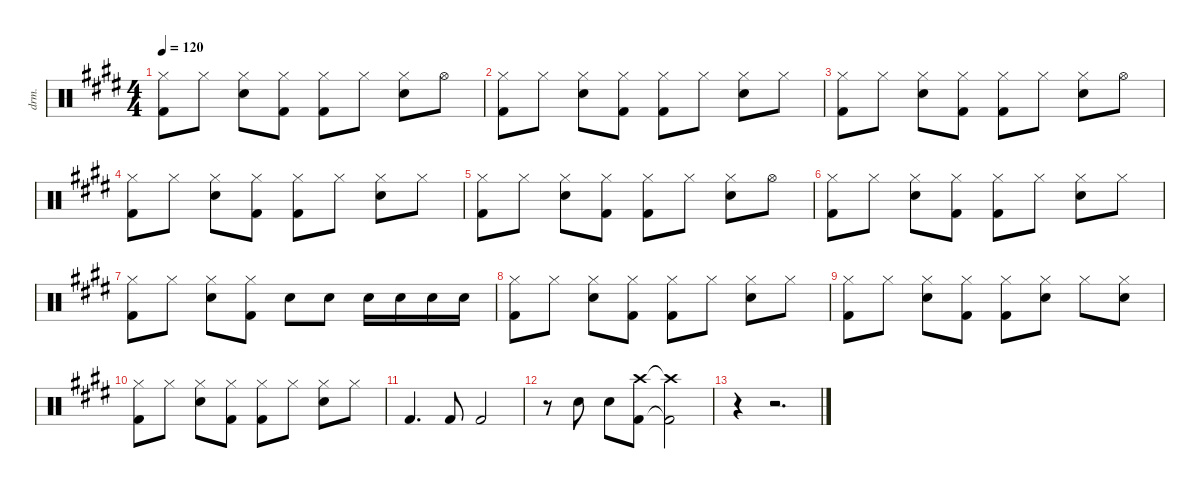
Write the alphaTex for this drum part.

\defaultSystemsLayout 4
\hideDynamics
\bracketExtendMode nobrackets
\track ("Drum" "drm.") {instrument percussion}
\staff {score}
\articulation defaults
\ts (4 4)
\tempo 120
\clef neutral
\ks e
("Hi-Hat (closed)"{acc forcenatural} "Kick (hit) 2"{acc forcenatural}).8{dy f beam Down} "Hi-Hat (closed)"{acc forcenatural}.8{beam Down} ("Hi-Hat (closed)"{acc forcenatural} "Snare (hit) 2"{acc forcenatural}).8{beam Down} ("Hi-Hat (closed)"{acc forcenatural} "Kick (hit) 2"{acc forcenatural}).8{beam Down} ("Hi-Hat (closed)"{acc forcenatural} "Kick (hit) 2"{acc forcenatural}).8{beam Down} "Hi-Hat (closed)"{acc forcenatural}.8{beam Down} ("Hi-Hat (closed)"{acc forcenatural} "Snare (hit) 2"{acc forcenatural}).8{beam Down} "Hi-Hat (open)"{acc forcenatural}.8{beam Down} |
("Hi-Hat (closed)"{acc forcenatural} "Kick (hit) 2"{acc forcenatural}).8{beam Down} "Hi-Hat (closed)"{acc forcenatural}.8{beam Down} ("Hi-Hat (closed)"{acc forcenatural} "Snare (hit) 2"{acc forcenatural}).8{beam Down} ("Hi-Hat (closed)"{acc forcenatural} "Kick (hit) 2"{acc forcenatural}).8{beam Down} ("Hi-Hat (closed)"{acc forcenatural} "Kick (hit) 2"{acc forcenatural}).8{beam Down} "Hi-Hat (closed)"{acc forcenatural}.8{beam Down} ("Hi-Hat (closed)"{acc forcenatural} "Snare (hit) 2"{acc forcenatural}).8{beam Down} "Hi-Hat (closed)"{acc forcenatural}.8{beam Down} |
("Hi-Hat (closed)"{acc forcenatural} "Kick (hit) 2"{acc forcenatural}).8{beam Down} "Hi-Hat (closed)"{acc forcenatural}.8{beam Down} ("Hi-Hat (closed)"{acc forcenatural} "Snare (hit) 2"{acc forcenatural}).8{beam Down} ("Hi-Hat (closed)"{acc forcenatural} "Kick (hit) 2"{acc forcenatural}).8{beam Down} ("Hi-Hat (closed)"{acc forcenatural} "Kick (hit) 2"{acc forcenatural}).8{beam Down} "Hi-Hat (closed)"{acc forcenatural}.8{beam Down} ("Hi-Hat (closed)"{acc forcenatural} "Snare (hit) 2"{acc forcenatural}).8{beam Down} "Hi-Hat (open)"{acc forcenatural}.8{beam Down} |
("Hi-Hat (closed)"{acc forcenatural} "Kick (hit) 2"{acc forcenatural}).8{beam Down} "Hi-Hat (closed)"{acc forcenatural}.8{beam Down} ("Hi-Hat (closed)"{acc forcenatural} "Snare (hit) 2"{acc forcenatural}).8{beam Down} ("Hi-Hat (closed)"{acc forcenatural} "Kick (hit) 2"{acc forcenatural}).8{beam Down} ("Hi-Hat (closed)"{acc forcenatural} "Kick (hit) 2"{acc forcenatural}).8{beam Down} "Hi-Hat (closed)"{acc forcenatural}.8{beam Down} ("Hi-Hat (closed)"{acc forcenatural} "Snare (hit) 2"{acc forcenatural}).8{beam Down} "Hi-Hat (closed)"{acc forcenatural}.8{beam Down} |
("Hi-Hat (closed)"{acc forcenatural} "Kick (hit) 2"{acc forcenatural}).8{beam Down} "Hi-Hat (closed)"{acc forcenatural}.8{beam Down} ("Hi-Hat (closed)"{acc forcenatural} "Snare (hit) 2"{acc forcenatural}).8{beam Down} ("Hi-Hat (closed)"{acc forcenatural} "Kick (hit) 2"{acc forcenatural}).8{beam Down} ("Hi-Hat (closed)"{acc forcenatural} "Kick (hit) 2"{acc forcenatural}).8{beam Down} "Hi-Hat (closed)"{acc forcenatural}.8{beam Down} ("Hi-Hat (closed)"{acc forcenatural} "Snare (hit) 2"{acc forcenatural}).8{beam Down} "Hi-Hat (open)"{acc forcenatural}.8{beam Down} |
("Hi-Hat (closed)"{acc forcenatural} "Kick (hit) 2"{acc forcenatural}).8{beam Down} "Hi-Hat (closed)"{acc forcenatural}.8{beam Down} ("Hi-Hat (closed)"{acc forcenatural} "Snare (hit) 2"{acc forcenatural}).8{beam Down} ("Hi-Hat (closed)"{acc forcenatural} "Kick (hit) 2"{acc forcenatural}).8{beam Down} ("Hi-Hat (closed)"{acc forcenatural} "Kick (hit) 2"{acc forcenatural}).8{beam Down} "Hi-Hat (closed)"{acc forcenatural}.8{beam Down} ("Hi-Hat (closed)"{acc forcenatural} "Snare (hit) 2"{acc forcenatural}).8{beam Down} "Hi-Hat (closed)"{acc forcenatural}.8{beam Down} |
("Hi-Hat (closed)"{acc forcenatural} "Kick (hit) 2"{acc forcenatural}).8{beam Down} "Hi-Hat (closed)"{acc forcenatural}.8{beam Down} ("Hi-Hat (closed)"{acc forcenatural} "Snare (hit) 2"{acc forcenatural}).8{beam Down} ("Hi-Hat (closed)"{acc forcenatural} "Kick (hit) 2"{acc forcenatural}).8{beam Down} "Snare (hit) 2"{acc forcenatural}.8{beam Down} "Snare (hit) 2"{acc forcenatural}.8{beam Down} "Snare (hit) 2"{acc forcenatural}.16{beam Down} "Snare (hit) 2"{acc forcenatural}.16{beam Down} "Snare (hit) 2"{acc forcenatural}.16{beam Down} "Snare (hit) 2"{acc forcenatural}.16{beam Down} |
("Hi-Hat (closed)"{acc forcenatural} "Kick (hit) 2"{acc forcenatural}).8{beam Down} "Hi-Hat (closed)"{acc forcenatural}.8{beam Down} ("Hi-Hat (closed)"{acc forcenatural} "Snare (hit) 2"{acc forcenatural}).8{beam Down} ("Hi-Hat (closed)"{acc forcenatural} "Kick (hit) 2"{acc forcenatural}).8{beam Down} ("Hi-Hat (closed)"{acc forcenatural} "Kick (hit) 2"{acc forcenatural}).8{beam Down} "Hi-Hat (closed)"{acc forcenatural}.8{beam Down} ("Hi-Hat (closed)"{acc forcenatural} "Snare (hit) 2"{acc forcenatural}).8{beam Down} "Hi-Hat (closed)"{acc forcenatural}.8{beam Down} |
("Hi-Hat (closed)"{acc forcenatural} "Kick (hit) 2"{acc forcenatural}).8{beam Down} "Hi-Hat (closed)"{acc forcenatural}.8{beam Down} ("Hi-Hat (closed)"{acc forcenatural} "Snare (hit) 2"{acc forcenatural}).8{beam Down} ("Hi-Hat (closed)"{acc forcenatural} "Kick (hit) 2"{acc forcenatural}).8{beam Down} ("Hi-Hat (closed)"{acc forcenatural} "Kick (hit) 2"{acc forcenatural}).8{beam Down} ("Hi-Hat (closed)"{acc forcenatural} "Snare (hit) 2"{acc forcenatural}).8{beam Down} "Hi-Hat (closed)"{acc forcenatural}.8{beam Down} ("Hi-Hat (closed)"{acc forcenatural} "Snare (hit) 2"{acc forcenatural}).8{beam Down} |
("Hi-Hat (closed)"{acc forcenatural} "Kick (hit) 2"{acc forcenatural}).8{beam Down} "Hi-Hat (closed)"{acc forcenatural}.8{beam Down} ("Hi-Hat (closed)"{acc forcenatural} "Snare (hit) 2"{acc forcenatural}).8{beam Down} ("Hi-Hat (closed)"{acc forcenatural} "Kick (hit) 2"{acc forcenatural}).8{beam Down} ("Hi-Hat (closed)"{acc forcenatural} "Kick (hit) 2"{acc forcenatural}).8{beam Down} "Hi-Hat (closed)"{acc forcenatural}.8{beam Down} ("Hi-Hat (closed)"{acc forcenatural} "Snare (hit) 2"{acc forcenatural}).8{beam Down} "Hi-Hat (closed)"{acc forcenatural}.8{beam Down} |
"Kick (hit) 2"{acc forcenatural}.4{d beam Up} "Kick (hit) 2"{acc forcenatural}.8{beam Up} "Kick (hit) 2"{acc forcenatural}.2{beam Up} |
r.8{beam Down} "Snare (hit) 2"{acc forcenatural}.8{beam Down} "Snare (hit) 2"{acc forcenatural}.8{beam Down} ("Crash high (hit)"{acc forcenatural} "Kick (hit) 2"{acc forcenatural}).8{beam Down} ("Crash high (hit)"{t acc forcenatural} "Kick (hit) 2"{t acc forcenatural}).2{beam Down} |
r.4{beam Down} r.2{d beam Down}
